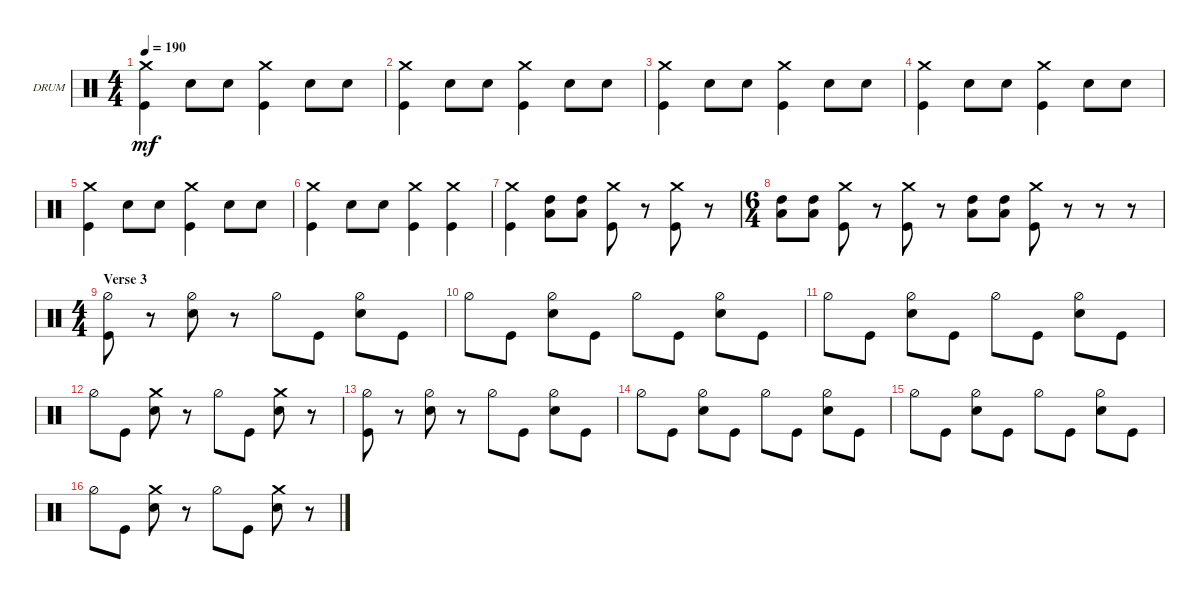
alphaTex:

\defaultSystemsLayout 4
\bracketExtendMode groupsimilarinstruments
\firstSystemTrackNameOrientation horizontal
\otherSystemsTrackNameOrientation horizontal
\track ("Drums" "DRUM") {instrument percussion}
\staff {score}
\articulation defaults
\ts (4 4)
\tempo 190
\clef neutral
\ks c
("Kick (hit)" "Crash medium (hit)").4{dy mf} "Snare (hit) 2".8 "Snare (hit) 2".8 ("Kick (hit)" "Crash medium (hit)").4 "Snare (hit) 2".8 "Snare (hit) 2".8 |
("Kick (hit)" "Crash medium (hit)").4 "Snare (hit) 2".8 "Snare (hit) 2".8 ("Kick (hit)" "Crash medium (hit)").4 "Snare (hit) 2".8 "Snare (hit) 2".8 |
("Kick (hit)" "Crash medium (hit)").4 "Snare (hit) 2".8 "Snare (hit) 2".8 ("Kick (hit)" "Crash medium (hit)").4 "Snare (hit) 2".8 "Snare (hit) 2".8 |
("Kick (hit)" "Crash medium (hit)").4 "Snare (hit) 2".8 "Snare (hit) 2".8 ("Kick (hit)" "Crash medium (hit)").4 "Snare (hit) 2".8 "Snare (hit) 2".8 |
("Kick (hit)" "Crash medium (hit)").4 "Snare (hit) 2".8 "Snare (hit) 2".8 ("Kick (hit)" "Crash medium (hit)").4 "Snare (hit) 2".8 "Snare (hit) 2".8 |
("Kick (hit)" "Crash medium (hit)").4 "Snare (hit) 2".8 "Snare (hit) 2".8 ("Kick (hit)" "Crash medium (hit)").4 ("Kick (hit)" "Crash medium (hit)").4 |
("Kick (hit)" "Crash medium (hit)").4 ("High Tom (hit)" "Low Tom (hit)").8 ("High Tom (hit)" "Low Tom (hit)").8 ("Kick (hit)" "Crash medium (hit)").8 r.8 ("Kick (hit)" "Crash medium (hit)").8 r.8 |
\ts (6 4)
("High Tom (hit)" "Low Tom (hit)").8 ("High Tom (hit)" "Low Tom (hit)").8 ("Kick (hit)" "Crash medium (hit)").8 r.8 ("Kick (hit)" "Crash medium (hit)").8 r.8 ("High Tom (hit)" "Low Tom (hit)").8 ("High Tom (hit)" "Low Tom (hit)").8 ("Kick (hit)" "Crash medium (hit)").8 r.8 r.8 r.8 |
\ts (4 4)
\section ("" "Verse 3")
("Kick (hit)" "Hi-Hat (half)").8 r.8 ("Snare (hit) 2" "Hi-Hat (half)").8 r.8 "Hi-Hat (half)".8 "Kick (hit)".8 ("Snare (hit) 2" "Hi-Hat (half)").8 "Kick (hit)".8 |
"Hi-Hat (half)".8 "Kick (hit)".8 ("Snare (hit) 2" "Hi-Hat (half)").8 "Kick (hit)".8 "Hi-Hat (half)".8 "Kick (hit)".8 ("Snare (hit) 2" "Hi-Hat (half)").8 "Kick (hit)".8 |
"Hi-Hat (half)".8 "Kick (hit)".8 ("Snare (hit) 2" "Hi-Hat (half)").8 "Kick (hit)".8 "Hi-Hat (half)".8 "Kick (hit)".8 ("Snare (hit) 2" "Hi-Hat (half)").8 "Kick (hit)".8 |
"Hi-Hat (half)".8 "Kick (hit)".8 ("Snare (hit) 2" "Crash medium (hit)").8 r.8 "Hi-Hat (half)".8 "Kick (hit)".8 ("Snare (hit) 2" "Crash medium (hit)").8 r.8 |
("Kick (hit)" "Hi-Hat (half)").8 r.8 ("Snare (hit) 2" "Hi-Hat (half)").8 r.8 "Hi-Hat (half)".8 "Kick (hit)".8 ("Snare (hit) 2" "Hi-Hat (half)").8 "Kick (hit)".8 |
"Hi-Hat (half)".8 "Kick (hit)".8 ("Snare (hit) 2" "Hi-Hat (half)").8 "Kick (hit)".8 "Hi-Hat (half)".8 "Kick (hit)".8 ("Snare (hit) 2" "Hi-Hat (half)").8 "Kick (hit)".8 |
"Hi-Hat (half)".8 "Kick (hit)".8 ("Snare (hit) 2" "Hi-Hat (half)").8 "Kick (hit)".8 "Hi-Hat (half)".8 "Kick (hit)".8 ("Snare (hit) 2" "Hi-Hat (half)").8 "Kick (hit)".8 |
"Hi-Hat (half)".8 "Kick (hit)".8 ("Snare (hit) 2" "Crash medium (hit)").8 r.8 "Hi-Hat (half)".8 "Kick (hit)".8 ("Snare (hit) 2" "Crash medium (hit)").8 r.8
